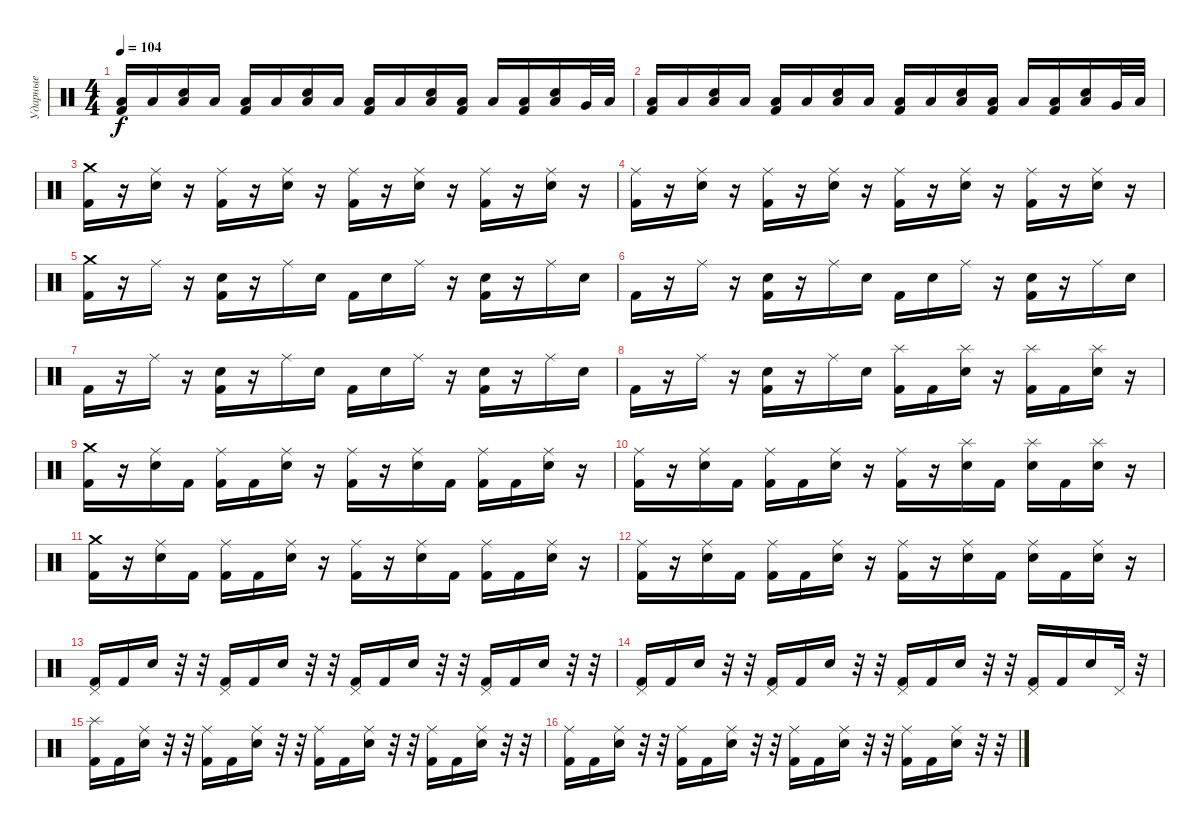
\track ("Ударные" "Ударные") {instrument percussion}
\staff {score}
\articulation defaults
\ts (4 4)
\tempo 104
\clef neutral
\ks c
("Low Floor Tom (hit)" "Kick (hit) 2").16{dy f} "Low Floor Tom (hit)".16 ("Low Floor Tom (hit)" "Electric Snare (hit)").16 "Low Floor Tom (hit)".16 ("Low Floor Tom (hit)" "Kick (hit) 2").16 "Low Floor Tom (hit)".16 ("Low Floor Tom (hit)" "Electric Snare (hit)").16 "Low Floor Tom (hit)".16 ("Low Floor Tom (hit)" "Kick (hit) 2").16 "Low Floor Tom (hit)".16 ("Low Floor Tom (hit)" "Electric Snare (hit)").16 ("Low Floor Tom (hit)" "Kick (hit) 2").16 "Low Floor Tom (hit)".16 ("Low Floor Tom (hit)" "Kick (hit) 2").16 ("Low Floor Tom (hit)" "Electric Snare (hit)").16 "Very Low Tom (hit)".32 "Low Tom (hit)".32 |
("Low Floor Tom (hit)" "Kick (hit) 2").16 "Low Floor Tom (hit)".16 ("Low Floor Tom (hit)" "Electric Snare (hit)").16 "Low Floor Tom (hit)".16 ("Low Floor Tom (hit)" "Kick (hit) 2").16 "Low Floor Tom (hit)".16 ("Low Floor Tom (hit)" "Electric Snare (hit)").16 "Low Floor Tom (hit)".16 ("Low Floor Tom (hit)" "Kick (hit) 2").16 "Low Floor Tom (hit)".16 ("Low Floor Tom (hit)" "Electric Snare (hit)").16 ("Low Floor Tom (hit)" "Kick (hit) 2").16 "Low Floor Tom (hit)".16 ("Low Floor Tom (hit)" "Kick (hit) 2").16 ("Low Floor Tom (hit)" "Electric Snare (hit)").16 "Very Low Tom (hit)".32 "Low Tom (hit)".32 |
("Crash medium (hit)" "Kick (hit) 2").16 r.16 ("Ride (middle)" "Electric Snare (hit)").16 r.16 ("Ride (middle)" "Kick (hit) 2").16 r.16 ("Ride (middle)" "Electric Snare (hit)").16 r.16 ("Ride (middle)" "Kick (hit) 2").16 r.16 ("Ride (middle)" "Electric Snare (hit)").16 r.16 ("Ride (middle)" "Kick (hit) 2").16 r.16 ("Ride (middle)" "Electric Snare (hit)").16 r.16 |
("Ride (middle)" "Kick (hit) 2").16 r.16 ("Ride (middle)" "Electric Snare (hit)").16 r.16 ("Ride (middle)" "Kick (hit) 2").16 r.16 ("Ride (middle)" "Electric Snare (hit)").16 r.16 ("Ride (middle)" "Kick (hit) 2").16 r.16 ("Ride (middle)" "Electric Snare (hit)").16 r.16 ("Ride (middle)" "Kick (hit) 2").16 r.16 ("Ride (middle)" "Electric Snare (hit)").16 r.16 |
("Crash medium (hit)" "Kick (hit) 2").16 r.16 "Ride (middle)".16 r.16 ("Electric Snare (hit)" "Kick (hit) 2").16 r.16 "Ride (middle)".16 "Electric Snare (hit)".16 "Kick (hit) 2".16 "Electric Snare (hit)".16 "Ride (middle)".16 r.16 ("Electric Snare (hit)" "Kick (hit) 2").16 r.16 "Ride (middle)".16 "Electric Snare (hit)".16 |
"Kick (hit) 2".16 r.16 "Ride (middle)".16 r.16 ("Electric Snare (hit)" "Kick (hit) 2").16 r.16 "Ride (middle)".16 "Electric Snare (hit)".16 "Kick (hit) 2".16 "Electric Snare (hit)".16 "Ride (middle)".16 r.16 ("Electric Snare (hit)" "Kick (hit) 2").16 r.16 "Ride (middle)".16 "Electric Snare (hit)".16 |
"Kick (hit) 2".16 r.16 "Ride (middle)".16 r.16 ("Electric Snare (hit)" "Kick (hit) 2").16 r.16 "Ride (middle)".16 "Electric Snare (hit)".16 "Kick (hit) 2".16 "Electric Snare (hit)".16 "Ride (middle)".16 r.16 ("Electric Snare (hit)" "Kick (hit) 2").16 r.16 "Ride (middle)".16 "Electric Snare (hit)".16 |
"Kick (hit) 2".16 r.16 "Ride (middle)".16 r.16 ("Electric Snare (hit)" "Kick (hit) 2").16 r.16 "Ride (middle)".16 "Electric Snare (hit)".16 ("Splash (hit)" "Kick (hit) 2").16 "Kick (hit) 2".16 ("Splash (hit)" "Electric Snare (hit)").16 r.16 ("Splash (hit)" "Kick (hit) 2").16 "Kick (hit) 2".16 ("Splash (hit)" "Electric Snare (hit)").16 r.16 |
("Crash medium (hit)" "Kick (hit) 2").16 r.16 ("Ride (middle)" "Electric Snare (hit)").16 "Kick (hit) 2".16 ("Ride (middle)" "Kick (hit) 2").16 "Kick (hit) 2".16 ("Ride (middle)" "Electric Snare (hit)").16 r.16 ("Ride (middle)" "Kick (hit) 2").16 r.16 ("Ride (middle)" "Electric Snare (hit)").16 "Kick (hit) 2".16 ("Ride (middle)" "Kick (hit) 2").16 "Kick (hit) 2".16 ("Ride (middle)" "Electric Snare (hit)").16 r.16 |
("Ride (middle)" "Kick (hit) 2").16 r.16 ("Ride (middle)" "Electric Snare (hit)").16 "Kick (hit) 2".16 ("Ride (middle)" "Kick (hit) 2").16 "Kick (hit) 2".16 ("Ride (middle)" "Electric Snare (hit)").16 r.16 ("Ride (middle)" "Kick (hit) 2").16 r.16 ("Splash (hit)" "Electric Snare (hit)").16 "Kick (hit) 2".16 ("Splash (hit)" "Electric Snare (hit)").16 "Kick (hit) 2".16 ("Splash (hit)" "Electric Snare (hit)").16 r.16 |
("Crash medium (hit)" "Kick (hit) 2").16 r.16 ("Ride (middle)" "Electric Snare (hit)").16 "Kick (hit) 2".16 ("Ride (middle)" "Kick (hit) 2").16 "Kick (hit) 2".16 ("Ride (middle)" "Electric Snare (hit)").16 r.16 ("Ride (middle)" "Kick (hit) 2").16 r.16 ("Ride (middle)" "Electric Snare (hit)").16 "Kick (hit) 2".16 ("Ride (middle)" "Kick (hit) 2").16 "Kick (hit) 2".16 ("Ride (middle)" "Electric Snare (hit)").16 r.16 |
("Ride (middle)" "Kick (hit) 2").16 r.16 ("Ride (middle)" "Electric Snare (hit)").16 "Kick (hit) 2".16 ("Ride (middle)" "Kick (hit) 2").16 "Kick (hit) 2".16 ("Ride (middle)" "Electric Snare (hit)").16 r.16 ("Ride (middle)" "Kick (hit) 2").16 r.16 ("Ride (middle)" "Electric Snare (hit)").16 "Kick (hit) 2".16 ("Ride (middle)" "Electric Snare (hit)").16 "Kick (hit) 2".16 ("Ride (middle)" "Electric Snare (hit)").16 r.16 |
("Pedal Hi-Hat (hit)" "Kick (hit) 2").16 "Kick (hit) 2".16 "Electric Snare (hit)".16 r.32 r.32 ("Pedal Hi-Hat (hit)" "Kick (hit) 2").16 "Kick (hit) 2".16 "Electric Snare (hit)".16 r.32 r.32 ("Pedal Hi-Hat (hit)" "Kick (hit) 2").16 "Kick (hit) 2".16 "Electric Snare (hit)".16 r.32 r.32 ("Pedal Hi-Hat (hit)" "Kick (hit) 2").16 "Kick (hit) 2".16 "Electric Snare (hit)".16 r.32 r.32 |
("Pedal Hi-Hat (hit)" "Kick (hit) 2").16 "Kick (hit) 2".16 "Electric Snare (hit)".16 r.32 r.32 ("Pedal Hi-Hat (hit)" "Kick (hit) 2").16 "Kick (hit) 2".16 "Electric Snare (hit)".16 r.32 r.32 ("Pedal Hi-Hat (hit)" "Kick (hit) 2").16 "Kick (hit) 2".16 "Electric Snare (hit)".16 r.32 r.32 ("Pedal Hi-Hat (hit)" "Kick (hit) 2").16 "Kick (hit) 2".16 "Electric Snare (hit)".16 "Pedal Hi-Hat (hit)".32 r.32 |
("Splash (hit)" "Kick (hit) 2").16 "Kick (hit) 2".16 ("Ride (middle)" "Electric Snare (hit)").16 r.32 r.32 ("Ride (middle)" "Kick (hit) 2").16 "Kick (hit) 2".16 ("Ride (middle)" "Electric Snare (hit)").16 r.32 r.32 ("Ride (middle)" "Kick (hit) 2").16 "Kick (hit) 2".16 ("Ride (middle)" "Electric Snare (hit)").16 r.32 r.32 ("Ride (middle)" "Kick (hit) 2").16 "Kick (hit) 2".16 ("Ride (middle)" "Electric Snare (hit)").16 r.32 r.32 |
("Ride (middle)" "Kick (hit) 2").16 "Kick (hit) 2".16 ("Ride (middle)" "Electric Snare (hit)").16 r.32 r.32 ("Ride (middle)" "Kick (hit) 2").16 "Kick (hit) 2".16 ("Ride (middle)" "Electric Snare (hit)").16 r.32 r.32 ("Ride (middle)" "Kick (hit) 2").16 "Kick (hit) 2".16 ("Ride (middle)" "Electric Snare (hit)").16 r.32 r.32 ("Ride (middle)" "Kick (hit) 2").16 "Kick (hit) 2".16 ("Ride (middle)" "Electric Snare (hit)").16 r.32 r.32
